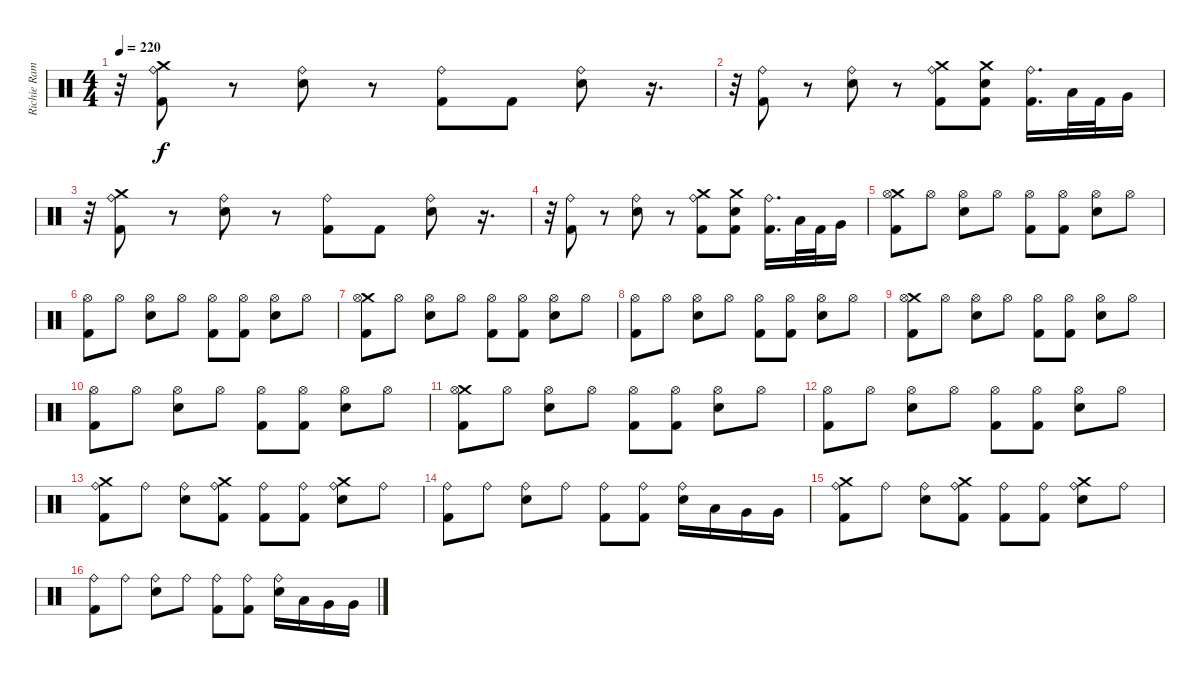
\track ("Richie Ramone" "Richie Ram") {instrument percussion}
\staff {score}
\articulation defaults
\ts (4 4)
\tempo 220
\clef neutral
\ks c
r.32{dy f} ("Crash medium (hit)" "Ride (bell)" "Kick (hit) 2").8 r.8 ("Ride (bell)" "Electric Snare (hit)").8 r.8 ("Ride (bell)" "Kick (hit) 2").8 "Kick (hit) 2".8 ("Ride (bell)" "Electric Snare (hit)").8 r.16{d} |
r.32 ("Ride (bell)" "Kick (hit) 2").8 r.8 ("Ride (bell)" "Electric Snare (hit)").8 r.8 ("Crash medium (hit)" "Ride (bell)" "Kick (hit) 2").8 ("Electric Snare (hit)" "Crash medium (hit)" "Kick (hit) 2").8 ("Kick (hit) 2" "Ride (bell)").16{d} "Low Tom (hit)".32 "Kick (hit) 2".32 "Very Low Tom (hit)".16 |
r.32 ("Crash medium (hit)" "Ride (bell)" "Kick (hit) 2").8 r.8 ("Ride (bell)" "Electric Snare (hit)").8 r.8 ("Ride (bell)" "Kick (hit) 2").8 "Kick (hit) 2".8 ("Ride (bell)" "Electric Snare (hit)").8 r.16{d} |
r.32 ("Ride (bell)" "Kick (hit) 2").8 r.8 ("Ride (bell)" "Electric Snare (hit)").8 r.8 ("Crash medium (hit)" "Ride (bell)" "Kick (hit) 2").8 ("Electric Snare (hit)" "Crash medium (hit)" "Kick (hit) 2").8 ("Kick (hit) 2" "Ride (bell)").16{d} "Low Tom (hit)".32 "Kick (hit) 2".32 "Very Low Tom (hit)".16 |
("Kick (hit) 2" "Crash medium (hit)" "Hi-Hat (open)").8 "Hi-Hat (open)".8 ("Electric Snare (hit)" "Hi-Hat (open)").8 "Hi-Hat (open)".8 ("Hi-Hat (open)" "Kick (hit) 2").8 ("Hi-Hat (open)" "Kick (hit) 2").8 ("Electric Snare (hit)" "Hi-Hat (open)").8 "Hi-Hat (open)".8 |
("Kick (hit) 2" "Hi-Hat (open)").8 "Hi-Hat (open)".8 ("Electric Snare (hit)" "Hi-Hat (open)").8 "Hi-Hat (open)".8 ("Hi-Hat (open)" "Kick (hit) 2").8 ("Hi-Hat (open)" "Kick (hit) 2").8 ("Electric Snare (hit)" "Hi-Hat (open)").8 "Hi-Hat (open)".8 |
("Kick (hit) 2" "Crash medium (hit)" "Hi-Hat (open)").8 "Hi-Hat (open)".8 ("Electric Snare (hit)" "Hi-Hat (open)").8 "Hi-Hat (open)".8 ("Hi-Hat (open)" "Kick (hit) 2").8 ("Hi-Hat (open)" "Kick (hit) 2").8 ("Electric Snare (hit)" "Hi-Hat (open)").8 "Hi-Hat (open)".8 |
("Kick (hit) 2" "Hi-Hat (open)").8 "Hi-Hat (open)".8 ("Electric Snare (hit)" "Hi-Hat (open)").8 "Hi-Hat (open)".8 ("Hi-Hat (open)" "Kick (hit) 2").8 ("Hi-Hat (open)" "Kick (hit) 2").8 ("Electric Snare (hit)" "Hi-Hat (open)").8 "Hi-Hat (open)".8 |
("Kick (hit) 2" "Crash medium (hit)" "Hi-Hat (open)").8 "Hi-Hat (open)".8 ("Electric Snare (hit)" "Hi-Hat (open)").8 "Hi-Hat (open)".8 ("Hi-Hat (open)" "Kick (hit) 2").8 ("Hi-Hat (open)" "Kick (hit) 2").8 ("Electric Snare (hit)" "Hi-Hat (open)").8 "Hi-Hat (open)".8 |
("Kick (hit) 2" "Hi-Hat (open)").8 "Hi-Hat (open)".8 ("Electric Snare (hit)" "Hi-Hat (open)").8 "Hi-Hat (open)".8 ("Hi-Hat (open)" "Kick (hit) 2").8 ("Hi-Hat (open)" "Kick (hit) 2").8 ("Electric Snare (hit)" "Hi-Hat (open)").8 "Hi-Hat (open)".8 |
("Kick (hit) 2" "Crash medium (hit)" "Hi-Hat (open)").8 "Hi-Hat (open)".8 ("Electric Snare (hit)" "Hi-Hat (open)").8 "Hi-Hat (open)".8 ("Hi-Hat (open)" "Kick (hit) 2").8 ("Hi-Hat (open)" "Kick (hit) 2").8 ("Electric Snare (hit)" "Hi-Hat (open)").8 "Hi-Hat (open)".8 |
("Kick (hit) 2" "Hi-Hat (open)").8 "Hi-Hat (open)".8 ("Electric Snare (hit)" "Hi-Hat (open)").8 "Hi-Hat (open)".8 ("Hi-Hat (open)" "Kick (hit) 2").8 ("Hi-Hat (open)" "Kick (hit) 2").8 ("Electric Snare (hit)" "Hi-Hat (open)").8 "Hi-Hat (open)".8 |
("Crash medium (hit)" "Kick (hit) 2" "Ride (bell)").8 "Ride (bell)".8 ("Electric Snare (hit)" "Ride (bell)").8 ("Kick (hit) 2" "Crash medium (hit)" "Ride (bell)").8 ("Kick (hit) 2" "Ride (bell)").8 ("Kick (hit) 2" "Ride (bell)").8 ("Crash medium (hit)" "Electric Snare (hit)" "Ride (bell)").8 "Ride (bell)".8 |
("Kick (hit) 2" "Ride (bell)").8 "Ride (bell)".8 ("Electric Snare (hit)" "Ride (bell)").8 "Ride (bell)".8 ("Kick (hit) 2" "Ride (bell)").8 ("Kick (hit) 2" "Ride (bell)").8 ("Electric Snare (hit)" "Ride (bell)").16 "Low Tom (hit)".16 "Very Low Tom (hit)".16 "Very Low Tom (hit)".16 |
("Crash medium (hit)" "Kick (hit) 2" "Ride (bell)").8 "Ride (bell)".8 ("Electric Snare (hit)" "Ride (bell)").8 ("Kick (hit) 2" "Crash medium (hit)" "Ride (bell)").8 ("Kick (hit) 2" "Ride (bell)").8 ("Kick (hit) 2" "Ride (bell)").8 ("Crash medium (hit)" "Electric Snare (hit)" "Ride (bell)").8 "Ride (bell)".8 |
("Kick (hit) 2" "Ride (bell)").8 "Ride (bell)".8 ("Electric Snare (hit)" "Ride (bell)").8 "Ride (bell)".8 ("Kick (hit) 2" "Ride (bell)").8 ("Kick (hit) 2" "Ride (bell)").8 ("Electric Snare (hit)" "Ride (bell)").16 "Low Tom (hit)".16 "Very Low Tom (hit)".16 "Very Low Tom (hit)".16
